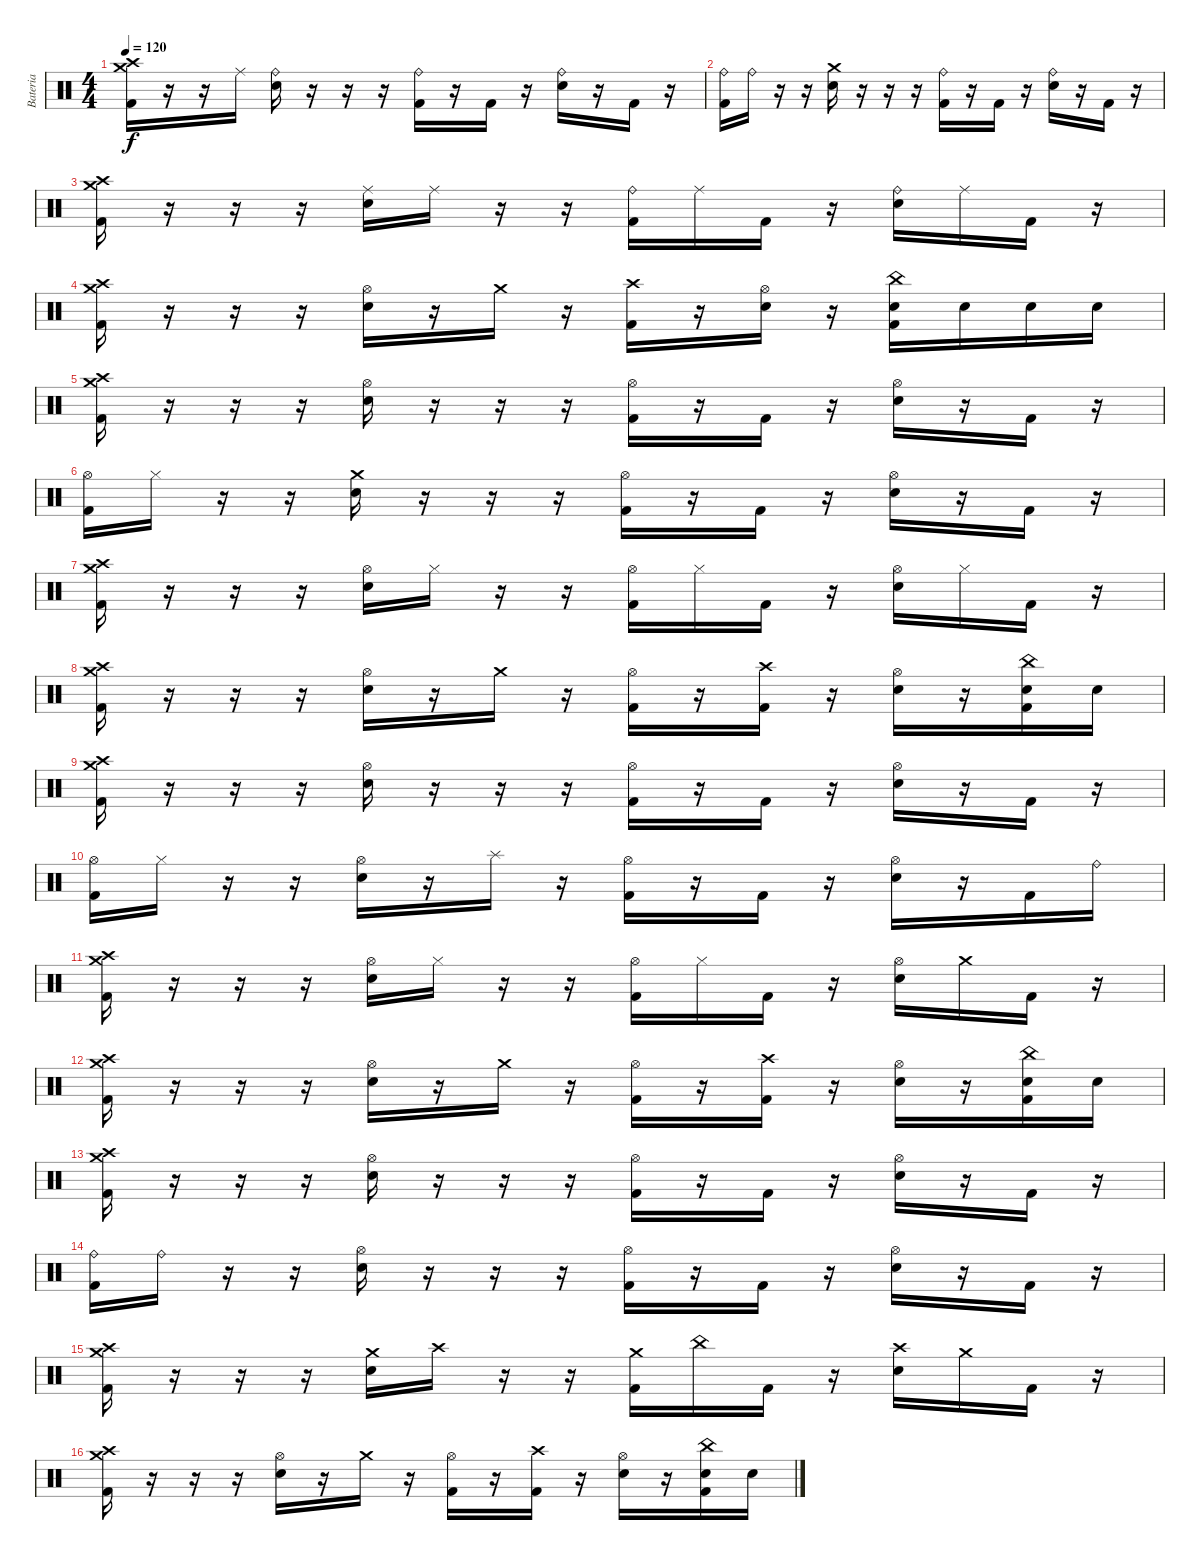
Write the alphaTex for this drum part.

\track ("Bateria" "Bateria") {instrument percussion}
\staff {score}
\articulation defaults
\ts (4 4)
\tempo 120
\clef neutral
\ks c
("Crash medium (hit)" "Crash high (hit)" "Kick (hit) 2").16{dy f} r.16 r.16 "Ride (middle)".16 ("Ride (bell)" "Electric Snare (hit)").16 r.16 r.16 r.16 ("Ride (bell)" "Kick (hit) 2").16 r.16 "Kick (hit) 2".16 r.16 ("Ride (bell)" "Electric Snare (hit)").16 r.16 "Kick (hit) 2".16 r.16 |
("Ride (bell)" "Kick (hit) 2").16 "Ride (bell)".16 r.16 r.16 ("Crash medium (hit)" "Electric Snare (hit)").16 r.16 r.16 r.16 ("Ride (bell)" "Kick (hit) 2").16 r.16 "Kick (hit) 2".16 r.16 ("Ride (bell)" "Electric Snare (hit)").16 r.16 "Kick (hit) 2".16 r.16 |
("Crash medium (hit)" "Crash high (hit)" "Kick (hit) 2").16 r.16 r.16 r.16 ("Ride (middle)" "Electric Snare (hit)").16 "Ride (middle)".16 r.16 r.16 ("Ride (bell)" "Kick (hit) 2").16 "Ride (middle)".16 "Kick (hit) 2".16 r.16 ("Ride (bell)" "Electric Snare (hit)").16 "Ride (middle)".16 "Kick (hit) 2".16 r.16 |
("Crash medium (hit)" "Crash high (hit)" "Kick (hit) 2").16 r.16 r.16 r.16 ("Hi-Hat (open)" "Electric Snare (hit)").16 r.16 "Crash medium (hit)".16 r.16 ("Crash high (hit)" "Kick (hit) 2").16 r.16 ("Hi-Hat (open)" "Electric Snare (hit)").16 r.16 ("China (hit)" "Electric Snare (hit)" "Kick (hit) 2").16 "Electric Snare (hit)".16 "Electric Snare (hit)".16 "Electric Snare (hit)".16 |
("Crash medium (hit)" "Crash high (hit)" "Kick (hit) 2").16 r.16 r.16 r.16 ("Hi-Hat (open)" "Electric Snare (hit)").16 r.16 r.16 r.16 ("Hi-Hat (open)" "Kick (hit) 2").16 r.16 "Kick (hit) 2".16 r.16 ("Hi-Hat (open)" "Electric Snare (hit)").16 r.16 "Kick (hit) 2".16 r.16 |
("Hi-Hat (open)" "Kick (hit) 2").16 "Hi-Hat (closed)".16 r.16 r.16 ("Crash medium (hit)" "Electric Snare (hit)").16 r.16 r.16 r.16 ("Hi-Hat (open)" "Kick (hit) 2").16 r.16 "Kick (hit) 2".16 r.16 ("Hi-Hat (open)" "Electric Snare (hit)").16 r.16 "Kick (hit) 2".16 r.16 |
("Crash medium (hit)" "Crash high (hit)" "Kick (hit) 2").16 r.16 r.16 r.16 ("Hi-Hat (open)" "Electric Snare (hit)").16 "Hi-Hat (closed)".16 r.16 r.16 ("Hi-Hat (open)" "Kick (hit) 2").16 "Hi-Hat (closed)".16 "Kick (hit) 2".16 r.16 ("Hi-Hat (open)" "Electric Snare (hit)").16 "Hi-Hat (closed)".16 "Kick (hit) 2".16 r.16 |
("Crash medium (hit)" "Crash high (hit)" "Kick (hit) 2").16 r.16 r.16 r.16 ("Hi-Hat (open)" "Electric Snare (hit)").16 r.16 "Crash medium (hit)".16 r.16 ("Hi-Hat (open)" "Kick (hit) 2").16 r.16 ("Crash high (hit)" "Kick (hit) 2").16 r.16 ("Hi-Hat (open)" "Electric Snare (hit)").16 r.16 ("China (hit)" "Electric Snare (hit)" "Kick (hit) 2").16 "Electric Snare (hit)".16 |
("Crash medium (hit)" "Crash high (hit)" "Kick (hit) 2").16 r.16 r.16 r.16 ("Hi-Hat (open)" "Electric Snare (hit)").16 r.16 r.16 r.16 ("Hi-Hat (open)" "Kick (hit) 2").16 r.16 "Kick (hit) 2".16 r.16 ("Hi-Hat (open)" "Electric Snare (hit)").16 r.16 "Kick (hit) 2".16 r.16 |
("Hi-Hat (open)" "Kick (hit) 2").16 "Hi-Hat (closed)".16 r.16 r.16 ("Hi-Hat (open)" "Electric Snare (hit)").16 r.16 "Splash (hit)".16 r.16 ("Hi-Hat (open)" "Kick (hit) 2").16 r.16 "Kick (hit) 2".16 r.16 ("Hi-Hat (open)" "Electric Snare (hit)").16 r.16 "Kick (hit) 2".16 "Ride (bell)".16 |
("Crash medium (hit)" "Crash high (hit)" "Kick (hit) 2").16 r.16 r.16 r.16 ("Hi-Hat (open)" "Electric Snare (hit)").16 "Hi-Hat (closed)".16 r.16 r.16 ("Hi-Hat (open)" "Kick (hit) 2").16 "Hi-Hat (closed)".16 "Kick (hit) 2".16 r.16 ("Hi-Hat (open)" "Electric Snare (hit)").16 "Crash medium (hit)".16 "Kick (hit) 2".16 r.16 |
("Crash medium (hit)" "Crash high (hit)" "Kick (hit) 2").16 r.16 r.16 r.16 ("Hi-Hat (open)" "Electric Snare (hit)").16 r.16 "Crash medium (hit)".16 r.16 ("Hi-Hat (open)" "Kick (hit) 2").16 r.16 ("Crash high (hit)" "Kick (hit) 2").16 r.16 ("Hi-Hat (open)" "Electric Snare (hit)").16 r.16 ("China (hit)" "Electric Snare (hit)" "Kick (hit) 2").16 "Electric Snare (hit)".16 |
("Crash medium (hit)" "Crash high (hit)" "Kick (hit) 2").16 r.16 r.16 r.16 ("Hi-Hat (open)" "Electric Snare (hit)").16 r.16 r.16 r.16 ("Hi-Hat (open)" "Kick (hit) 2").16 r.16 "Kick (hit) 2".16 r.16 ("Hi-Hat (open)" "Electric Snare (hit)").16 r.16 "Kick (hit) 2".16 r.16 |
("Ride (bell)" "Kick (hit) 2").16 "Ride (bell)".16 r.16 r.16 ("Hi-Hat (open)" "Electric Snare (hit)").16 r.16 r.16 r.16 ("Hi-Hat (open)" "Kick (hit) 2").16 r.16 "Kick (hit) 2".16 r.16 ("Hi-Hat (open)" "Electric Snare (hit)").16 r.16 "Kick (hit) 2".16 r.16 |
("Crash medium (hit)" "Crash high (hit)" "Kick (hit) 2").16 r.16 r.16 r.16 ("Crash medium (hit)" "Electric Snare (hit)").16 "Crash high (hit)".16 r.16 r.16 ("Crash medium (hit)" "Kick (hit) 2").16 "China (hit)".16 "Kick (hit) 2".16 r.16 ("Crash high (hit)" "Electric Snare (hit)").16 "Crash medium (hit)".16 "Kick (hit) 2".16 r.16 |
("Crash medium (hit)" "Crash high (hit)" "Kick (hit) 2").16 r.16 r.16 r.16 ("Hi-Hat (open)" "Electric Snare (hit)").16 r.16 "Crash medium (hit)".16 r.16 ("Hi-Hat (open)" "Kick (hit) 2").16 r.16 ("Crash high (hit)" "Kick (hit) 2").16 r.16 ("Hi-Hat (open)" "Electric Snare (hit)").16 r.16 ("China (hit)" "Electric Snare (hit)" "Kick (hit) 2").16 "Electric Snare (hit)".16
